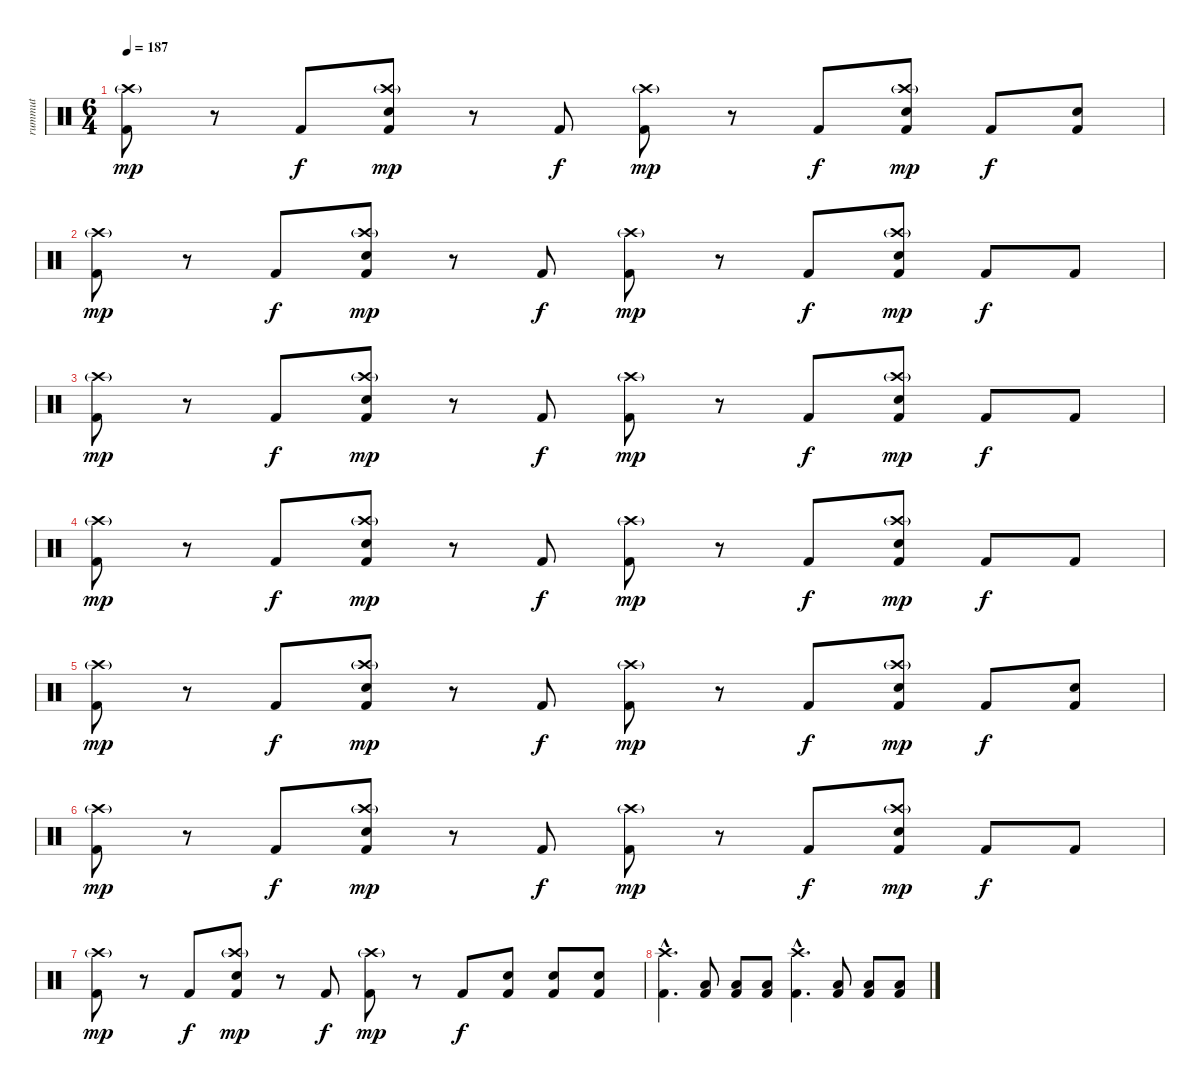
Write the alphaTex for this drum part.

\track ("rummut" "rummut") {instrument percussion}
\staff {score}
\articulation defaults
\ts (6 4)
\tempo 187
\clef neutral
\ks c
("Kick (hit) 2" "Crash high (hit)"{g}).8{dy mp} r.8 "Kick (hit) 2".8{dy f} ("Kick (hit) 2" "Crash high (hit)"{g} "Snare (hit) 2").8{dy mp} r.8 "Kick (hit) 2".8{dy f} ("Kick (hit) 2" "Crash high (hit)"{g}).8{dy mp} r.8 "Kick (hit) 2".8{dy f} ("Kick (hit) 2" "Crash high (hit)"{g} "Snare (hit) 2").8{dy mp} "Kick (hit) 2".8{dy f} ("Kick (hit) 2" "Snare (hit) 2").8 |
("Kick (hit) 2" "Crash high (hit)"{g}).8{dy mp} r.8 "Kick (hit) 2".8{dy f} ("Kick (hit) 2" "Crash high (hit)"{g} "Snare (hit) 2").8{dy mp} r.8 "Kick (hit) 2".8{dy f} ("Kick (hit) 2" "Crash high (hit)"{g}).8{dy mp} r.8 "Kick (hit) 2".8{dy f} ("Kick (hit) 2" "Crash high (hit)"{g} "Snare (hit) 2").8{dy mp} "Kick (hit) 2".8{dy f} "Kick (hit) 2".8 |
("Kick (hit) 2" "Crash high (hit)"{g}).8{dy mp} r.8 "Kick (hit) 2".8{dy f} ("Kick (hit) 2" "Crash high (hit)"{g} "Snare (hit) 2").8{dy mp} r.8 "Kick (hit) 2".8{dy f} ("Kick (hit) 2" "Crash high (hit)"{g}).8{dy mp} r.8 "Kick (hit) 2".8{dy f} ("Kick (hit) 2" "Crash high (hit)"{g} "Snare (hit) 2").8{dy mp} "Kick (hit) 2".8{dy f} "Kick (hit) 2".8 |
("Kick (hit) 2" "Crash high (hit)"{g}).8{dy mp} r.8 "Kick (hit) 2".8{dy f} ("Kick (hit) 2" "Crash high (hit)"{g} "Snare (hit) 2").8{dy mp} r.8 "Kick (hit) 2".8{dy f} ("Kick (hit) 2" "Crash high (hit)"{g}).8{dy mp} r.8 "Kick (hit) 2".8{dy f} ("Kick (hit) 2" "Crash high (hit)"{g} "Snare (hit) 2").8{dy mp} "Kick (hit) 2".8{dy f} "Kick (hit) 2".8 |
("Kick (hit) 2" "Crash high (hit)"{g}).8{dy mp} r.8 "Kick (hit) 2".8{dy f} ("Kick (hit) 2" "Crash high (hit)"{g} "Snare (hit) 2").8{dy mp} r.8 "Kick (hit) 2".8{dy f} ("Kick (hit) 2" "Crash high (hit)"{g}).8{dy mp} r.8 "Kick (hit) 2".8{dy f} ("Kick (hit) 2" "Crash high (hit)"{g} "Snare (hit) 2").8{dy mp} "Kick (hit) 2".8{dy f} ("Kick (hit) 2" "Snare (hit) 2").8 |
("Kick (hit) 2" "Crash high (hit)"{g}).8{dy mp} r.8 "Kick (hit) 2".8{dy f} ("Kick (hit) 2" "Crash high (hit)"{g} "Snare (hit) 2").8{dy mp} r.8 "Kick (hit) 2".8{dy f} ("Kick (hit) 2" "Crash high (hit)"{g}).8{dy mp} r.8 "Kick (hit) 2".8{dy f} ("Kick (hit) 2" "Crash high (hit)"{g} "Snare (hit) 2").8{dy mp} "Kick (hit) 2".8{dy f} "Kick (hit) 2".8 |
("Kick (hit) 2" "Crash high (hit)"{g}).8{dy mp} r.8 "Kick (hit) 2".8{dy f} ("Kick (hit) 2" "Crash high (hit)"{g} "Snare (hit) 2").8{dy mp} r.8 "Kick (hit) 2".8{dy f} ("Kick (hit) 2" "Crash high (hit)"{g}).8{dy mp} r.8 "Kick (hit) 2".8{dy f} ("Kick (hit) 2" "Snare (hit) 2").8 ("Kick (hit) 2" "Snare (hit) 2").8 ("Kick (hit) 2" "Snare (hit) 2").8 |
("Kick (hit) 2"{hac} "Crash high (hit)"{hac}).4{d} ("Kick (hit) 2" "Low Tom (hit)").8 ("Kick (hit) 2" "Low Tom (hit)").8 ("Kick (hit) 2" "Low Tom (hit)").8 ("Kick (hit) 2"{hac} "Crash high (hit)"{hac}).4{d} ("Kick (hit) 2" "Low Tom (hit)").8 ("Kick (hit) 2" "Low Tom (hit)").8 ("Kick (hit) 2" "Low Tom (hit)").8
